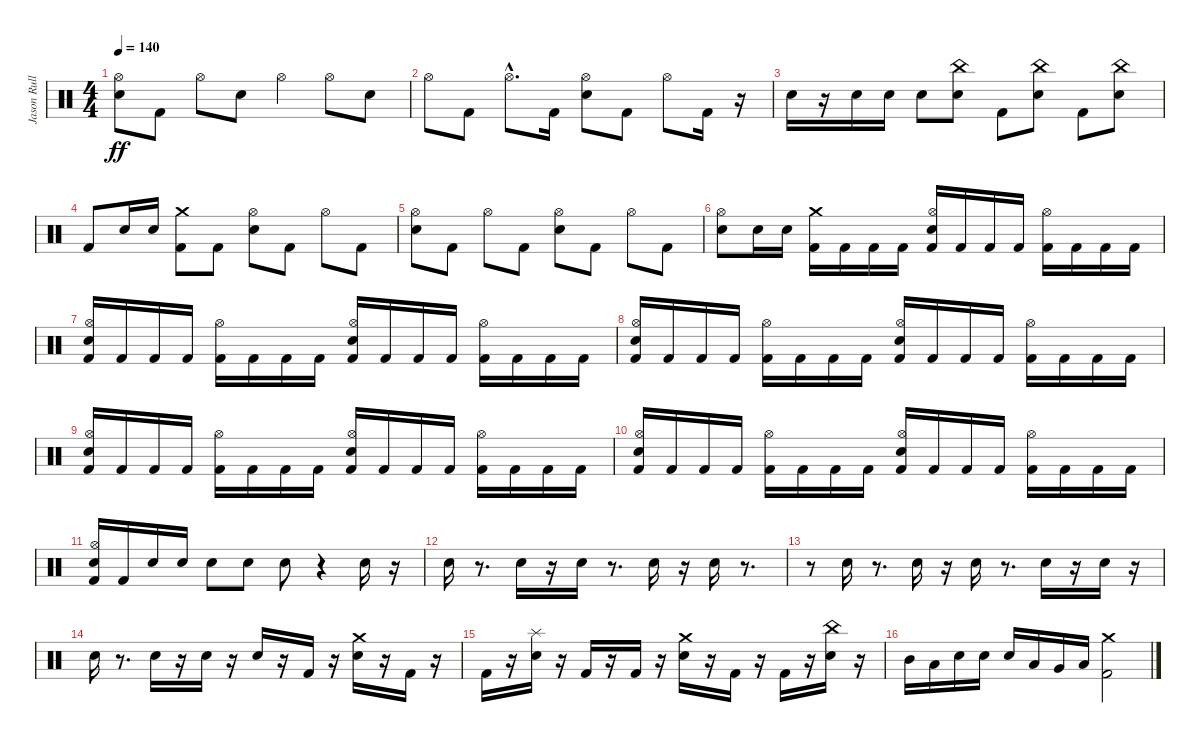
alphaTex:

\track ("Jason Rullo" "Jason Rull") {instrument percussion}
\staff {score}
\articulation defaults
\ts (4 4)
\tempo 140
\clef neutral
\ks c
("Electric Snare (hit)" "Hi-Hat (open)").8{dy ff} "Kick (hit) 2".8 "Hi-Hat (open)".8 "Electric Snare (hit)".8 "Hi-Hat (open)".4 "Hi-Hat (open)".8 "Electric Snare (hit)".8 |
"Hi-Hat (open)".8 "Kick (hit) 2".8 "Hi-Hat (open)"{hac}.8{d} "Kick (hit) 2".16 ("Electric Snare (hit)" "Hi-Hat (open)").8 "Kick (hit) 2".8 "Hi-Hat (open)".8 "Kick (hit) 2".16 r.16 |
"Electric Snare (hit)".16 r.16 "Electric Snare (hit)".16 "Electric Snare (hit)".16 "Electric Snare (hit)".8 ("Electric Snare (hit)" "China (hit)").8 "Kick (hit) 2".8 ("Electric Snare (hit)" "China (hit)").8 "Kick (hit) 2".8 ("Electric Snare (hit)" "China (hit)").8 |
"Kick (hit) 2".8 "Electric Snare (hit)".16 "Electric Snare (hit)".16 ("Crash medium (hit)" "Kick (hit) 2").8 "Kick (hit) 2".8 ("Electric Snare (hit)" "Hi-Hat (open)").8 "Kick (hit) 2".8 "Hi-Hat (open)".8 "Kick (hit) 2".8 |
("Electric Snare (hit)" "Hi-Hat (open)").8 "Kick (hit) 2".8 "Hi-Hat (open)".8 "Kick (hit) 2".8 ("Electric Snare (hit)" "Hi-Hat (open)").8 "Kick (hit) 2".8 "Hi-Hat (open)".8 "Kick (hit) 2".8 |
("Electric Snare (hit)" "Hi-Hat (open)").8 "Electric Snare (hit)".16 "Electric Snare (hit)".16 ("Crash medium (hit)" "Kick (hit) 2").16 "Kick (hit) 2".16 "Kick (hit) 2".16 "Kick (hit) 2".16 ("Electric Snare (hit)" "Hi-Hat (open)" "Kick (hit) 2").16 "Kick (hit) 2".16 "Kick (hit) 2".16 "Kick (hit) 2".16 ("Hi-Hat (open)" "Kick (hit) 2").16 "Kick (hit) 2".16 "Kick (hit) 2".16 "Kick (hit) 2".16 |
("Electric Snare (hit)" "Hi-Hat (open)" "Kick (hit) 2").16 "Kick (hit) 2".16 "Kick (hit) 2".16 "Kick (hit) 2".16 ("Hi-Hat (open)" "Kick (hit) 2").16 "Kick (hit) 2".16 "Kick (hit) 2".16 "Kick (hit) 2".16 ("Electric Snare (hit)" "Hi-Hat (open)" "Kick (hit) 2").16 "Kick (hit) 2".16 "Kick (hit) 2".16 "Kick (hit) 2".16 ("Hi-Hat (open)" "Kick (hit) 2").16 "Kick (hit) 2".16 "Kick (hit) 2".16 "Kick (hit) 2".16 |
("Electric Snare (hit)" "Hi-Hat (open)" "Kick (hit) 2").16 "Kick (hit) 2".16 "Kick (hit) 2".16 "Kick (hit) 2".16 ("Hi-Hat (open)" "Kick (hit) 2").16 "Kick (hit) 2".16 "Kick (hit) 2".16 "Kick (hit) 2".16 ("Electric Snare (hit)" "Hi-Hat (open)" "Kick (hit) 2").16 "Kick (hit) 2".16 "Kick (hit) 2".16 "Kick (hit) 2".16 ("Hi-Hat (open)" "Kick (hit) 2").16 "Kick (hit) 2".16 "Kick (hit) 2".16 "Kick (hit) 2".16 |
("Electric Snare (hit)" "Hi-Hat (open)" "Kick (hit) 2").16 "Kick (hit) 2".16 "Kick (hit) 2".16 "Kick (hit) 2".16 ("Hi-Hat (open)" "Kick (hit) 2").16 "Kick (hit) 2".16 "Kick (hit) 2".16 "Kick (hit) 2".16 ("Electric Snare (hit)" "Hi-Hat (open)" "Kick (hit) 2").16 "Kick (hit) 2".16 "Kick (hit) 2".16 "Kick (hit) 2".16 ("Hi-Hat (open)" "Kick (hit) 2").16 "Kick (hit) 2".16 "Kick (hit) 2".16 "Kick (hit) 2".16 |
("Electric Snare (hit)" "Hi-Hat (open)" "Kick (hit) 2").16 "Kick (hit) 2".16 "Kick (hit) 2".16 "Kick (hit) 2".16 ("Hi-Hat (open)" "Kick (hit) 2").16 "Kick (hit) 2".16 "Kick (hit) 2".16 "Kick (hit) 2".16 ("Electric Snare (hit)" "Hi-Hat (open)" "Kick (hit) 2").16 "Kick (hit) 2".16 "Kick (hit) 2".16 "Kick (hit) 2".16 ("Hi-Hat (open)" "Kick (hit) 2").16 "Kick (hit) 2".16 "Kick (hit) 2".16 "Kick (hit) 2".16 |
("Electric Snare (hit)" "Hi-Hat (open)" "Kick (hit) 2").16 "Kick (hit) 2".16 "Electric Snare (hit)".16 "Electric Snare (hit)".16 "Electric Snare (hit)".8 "Electric Snare (hit)".8 "Electric Snare (hit)".8 r.4 "Electric Snare (hit)".16 r.16 |
"Electric Snare (hit)".16 r.8{d} "Electric Snare (hit)".16 r.16 "Electric Snare (hit)".16 r.8{d} "Electric Snare (hit)".16 r.16 "Electric Snare (hit)".16 r.8{d} |
r.8 "Electric Snare (hit)".16 r.8{d} "Electric Snare (hit)".16 r.16 "Electric Snare (hit)".16 r.8{d} "Electric Snare (hit)".16 r.16 "Electric Snare (hit)".16 r.16 |
"Electric Snare (hit)".16 r.8{d} "Electric Snare (hit)".16 r.16 "Electric Snare (hit)".16 r.16 "Electric Snare (hit)".16 r.16 "Kick (hit) 2".16 r.16 ("Electric Snare (hit)" "Crash medium (hit)").16 r.16 "Kick (hit) 2".16 r.16 |
"Kick (hit) 2".16 r.16 ("Electric Snare (hit)" "Splash (hit)").16 r.16 "Kick (hit) 2".16 r.16 "Kick (hit) 2".16 r.16 ("Electric Snare (hit)" "Crash medium (hit)").16 r.16 "Kick (hit) 2".16 r.16 "Kick (hit) 2".16 r.16 ("Electric Snare (hit)" "China (hit)").16 r.16 |
"Mid Tom (hit)".16 "Low Tom (hit)".16 "Electric Snare (hit)".16 "Electric Snare (hit)".16 "Electric Snare (hit)".16 "Low Tom (hit)".16 "Very Low Tom (hit)".16 "Low Floor Tom (hit)".16 ("Crash medium (hit)" "Kick (hit) 2").2
